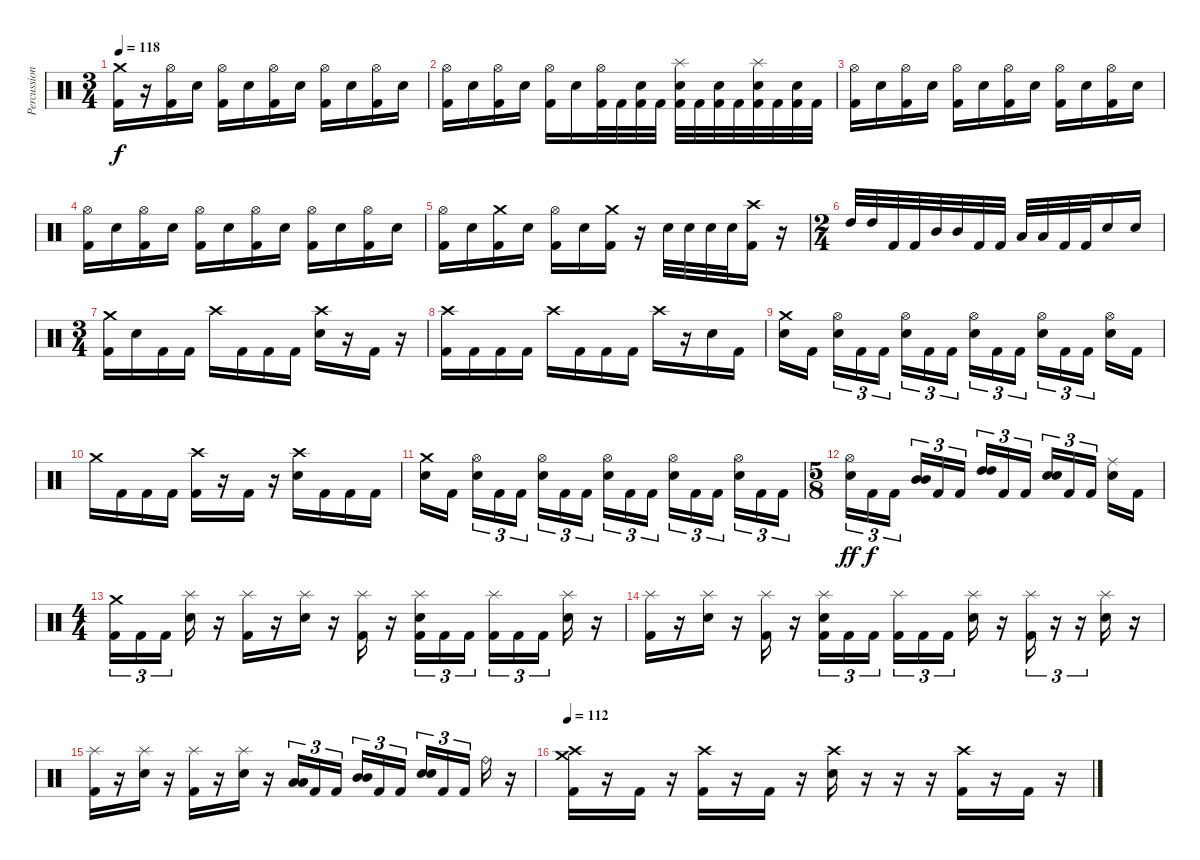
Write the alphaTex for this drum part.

\track ("Percussion" "Percussion") {instrument percussion}
\staff {score}
\articulation defaults
\ts (3 4)
\tempo 118
\clef neutral
\ks c
("Crash medium (hit)" "Kick (hit) 2").16{dy f} r.16 ("Hi-Hat (open)" "Kick (hit) 2").16 "Electric Snare (hit)".16 ("Hi-Hat (open)" "Kick (hit) 2").16 "Electric Snare (hit)".16 ("Hi-Hat (open)" "Kick (hit) 2").16 "Electric Snare (hit)".16 ("Hi-Hat (open)" "Kick (hit) 2").16 "Electric Snare (hit)".16 ("Hi-Hat (open)" "Kick (hit) 2").16 "Electric Snare (hit)".16 |
("Hi-Hat (open)" "Kick (hit) 2").16 "Electric Snare (hit)".16 ("Hi-Hat (open)" "Kick (hit) 2").16 "Electric Snare (hit)".16 ("Hi-Hat (open)" "Kick (hit) 2").16 "Electric Snare (hit)".16 ("Hi-Hat (open)" "Kick (hit) 2").32 "Kick (hit) 2".32 ("Electric Snare (hit)" "Kick (hit) 2").32 "Kick (hit) 2".32 ("Splash (hit)" "Electric Snare (hit)" "Kick (hit) 2").32 "Kick (hit) 2".32 ("Electric Snare (hit)" "Kick (hit) 2").32 "Kick (hit) 2".32 ("Splash (hit)" "Electric Snare (hit)" "Kick (hit) 2").32 "Kick (hit) 2".32 ("Electric Snare (hit)" "Kick (hit) 2").32 "Kick (hit) 2".32 |
("Hi-Hat (open)" "Kick (hit) 2").16 "Electric Snare (hit)".16 ("Hi-Hat (open)" "Kick (hit) 2").16 "Electric Snare (hit)".16 ("Hi-Hat (open)" "Kick (hit) 2").16 "Electric Snare (hit)".16 ("Hi-Hat (open)" "Kick (hit) 2").16 "Electric Snare (hit)".16 ("Hi-Hat (open)" "Kick (hit) 2").16 "Electric Snare (hit)".16 ("Hi-Hat (open)" "Kick (hit) 2").16 "Electric Snare (hit)".16 |
("Hi-Hat (open)" "Kick (hit) 2").16 "Electric Snare (hit)".16 ("Hi-Hat (open)" "Kick (hit) 2").16 "Electric Snare (hit)".16 ("Hi-Hat (open)" "Kick (hit) 2").16 "Electric Snare (hit)".16 ("Hi-Hat (open)" "Kick (hit) 2").16 "Electric Snare (hit)".16 ("Hi-Hat (open)" "Kick (hit) 2").16 "Electric Snare (hit)".16 ("Hi-Hat (open)" "Kick (hit) 2").16 "Electric Snare (hit)".16 |
("Hi-Hat (open)" "Kick (hit) 2").16 "Electric Snare (hit)".16 ("Crash medium (hit)" "Kick (hit) 2").16 "Electric Snare (hit)".16 ("Hi-Hat (open)" "Kick (hit) 2").16 "Electric Snare (hit)".16 ("Crash medium (hit)" "Kick (hit) 2").16 r.16 "Electric Snare (hit)".32 "Electric Snare (hit)".32 "Electric Snare (hit)".32 "Electric Snare (hit)".32 ("Crash high (hit)" "Kick (hit) 2").16 r.16 |
\ts (2 4)
"High Tom (hit)".32 "High Tom (hit)".32 "Kick (hit) 2".32 "Kick (hit) 2".32 "Mid Tom (hit)".32 "Mid Tom (hit)".32 "Kick (hit) 2".32 "Kick (hit) 2".32 "Low Tom (hit)".32 "Low Tom (hit)".32 "Kick (hit) 2".32 "Kick (hit) 2".32 "Electric Snare (hit)".16 "Electric Snare (hit)".16 |
\ts (3 4)
("Crash medium (hit)" "Kick (hit) 2").16 "Electric Snare (hit)".16 "Kick (hit) 2".16 "Kick (hit) 2".16 "Crash high (hit)".16 "Kick (hit) 2".16 "Kick (hit) 2".16 "Kick (hit) 2".16 ("Crash high (hit)" "Electric Snare (hit)").16 r.16 "Kick (hit) 2".16 r.16 |
("Crash high (hit)" "Kick (hit) 2").16 "Kick (hit) 2".16 "Kick (hit) 2".16 "Kick (hit) 2".16 "Crash high (hit)".16 "Kick (hit) 2".16 "Kick (hit) 2".16 "Kick (hit) 2".16 "Crash high (hit)".16 r.16 "Electric Snare (hit)".16 "Kick (hit) 2".16 |
("Crash medium (hit)" "Electric Snare (hit)").16 "Kick (hit) 2".16{beam splitsecondary} ("Hi-Hat (open)" "Electric Snare (hit)").16{tu (3 2)} "Kick (hit) 2".16{tu (3 2)} "Kick (hit) 2".16{tu (3 2)} ("Hi-Hat (open)" "Electric Snare (hit)").16{tu (3 2)} "Kick (hit) 2".16{tu (3 2)} "Kick (hit) 2".16{tu (3 2) beam splitsecondary} ("Hi-Hat (open)" "Electric Snare (hit)").16{tu (3 2)} "Kick (hit) 2".16{tu (3 2)} "Kick (hit) 2".16{tu (3 2)} ("Hi-Hat (open)" "Electric Snare (hit)").16{tu (3 2)} "Kick (hit) 2".16{tu (3 2)} "Kick (hit) 2".16{tu (3 2) beam splitsecondary} ("Hi-Hat (open)" "Electric Snare (hit)").16 "Kick (hit) 2".16 |
"Crash medium (hit)".16 "Kick (hit) 2".16 "Kick (hit) 2".16 "Kick (hit) 2".16 ("Crash high (hit)" "Kick (hit) 2").16 r.16 "Kick (hit) 2".16 r.16 ("Crash high (hit)" "Electric Snare (hit)").16 "Kick (hit) 2".16 "Kick (hit) 2".16 "Kick (hit) 2".16 |
("Crash medium (hit)" "Electric Snare (hit)").16 "Kick (hit) 2".16{beam splitsecondary} ("Hi-Hat (open)" "Electric Snare (hit)").16{tu (3 2)} "Kick (hit) 2".16{tu (3 2)} "Kick (hit) 2".16{tu (3 2)} ("Hi-Hat (open)" "Electric Snare (hit)").16{tu (3 2)} "Kick (hit) 2".16{tu (3 2)} "Kick (hit) 2".16{tu (3 2) beam splitsecondary} ("Hi-Hat (open)" "Electric Snare (hit)").16{tu (3 2)} "Kick (hit) 2".16{tu (3 2)} "Kick (hit) 2".16{tu (3 2)} ("Hi-Hat (open)" "Electric Snare (hit)").16{tu (3 2)} "Kick (hit) 2".16{tu (3 2)} "Kick (hit) 2".16{tu (3 2) beam splitsecondary} ("Hi-Hat (open)" "Electric Snare (hit)").16{tu (3 2)} "Kick (hit) 2".16{tu (3 2)} "Kick (hit) 2".16{tu (3 2)} |
\ts (5 8)
("Hi-Hat (open)" "Electric Snare (hit)").16{tu (3 2) dy ff} "Kick (hit) 2".16{tu (3 2) dy f} "Kick (hit) 2".16{tu (3 2)} ("Mid Tom (hit)" "Mid Tom (hit)").16{tu (3 2)} "Kick (hit) 2".16{tu (3 2)} "Kick (hit) 2".16{tu (3 2)} ("High Tom (hit)" "High Tom (hit)").16{tu (3 2)} "Kick (hit) 2".16{tu (3 2)} "Kick (hit) 2".16{tu (3 2)} ("Electric Snare (hit)" "Electric Snare (hit)").16{tu (3 2) bu 60} "Kick (hit) 2".16{tu (3 2)} "Kick (hit) 2".16{tu (3 2)} ("Ride (middle)" "Electric Snare (hit)").16 "Kick (hit) 2".16 |
\ts (4 4)
("Crash medium (hit)" "Kick (hit) 2").16{tu (3 2)} "Kick (hit) 2".16{tu (3 2)} "Kick (hit) 2".16{tu (3 2) beam splitsecondary} ("Splash (hit)" "Electric Snare (hit)").16 r.16 ("Splash (hit)" "Kick (hit) 2").16 r.16 ("Splash (hit)" "Electric Snare (hit)").16 r.16 ("Splash (hit)" "Kick (hit) 2").16 r.16 ("Splash (hit)" "Electric Snare (hit)" "Kick (hit) 2").16{tu (3 2)} "Kick (hit) 2".16{tu (3 2)} "Kick (hit) 2".16{tu (3 2)} ("Splash (hit)" "Kick (hit) 2").16{tu (3 2)} "Kick (hit) 2".16{tu (3 2)} "Kick (hit) 2".16{tu (3 2) beam splitsecondary} ("Splash (hit)" "Electric Snare (hit)").16 r.16 |
("Splash (hit)" "Kick (hit) 2").16 r.16 ("Splash (hit)" "Electric Snare (hit)").16 r.16 ("Splash (hit)" "Kick (hit) 2").16 r.16 ("Splash (hit)" "Electric Snare (hit)" "Kick (hit) 2").16{tu (3 2)} "Kick (hit) 2".16{tu (3 2)} "Kick (hit) 2".16{tu (3 2)} ("Splash (hit)" "Kick (hit) 2").16{tu (3 2)} "Kick (hit) 2".16{tu (3 2)} "Kick (hit) 2".16{tu (3 2) beam splitsecondary} ("Splash (hit)" "Electric Snare (hit)").16 r.16 ("Splash (hit)" "Kick (hit) 2").16{tu (3 2)} r.16{tu (3 2)} r.16{tu (3 2)} ("Splash (hit)" "Electric Snare (hit)").16 r.16 |
("Splash (hit)" "Kick (hit) 2").16 r.16 ("Splash (hit)" "Electric Snare (hit)").16 r.16 ("Splash (hit)" "Kick (hit) 2").16 r.16 ("Splash (hit)" "Electric Snare (hit)").16 r.16 ("Low Tom (hit)" "Low Tom (hit)").16{tu (3 2)} "Kick (hit) 2".16{tu (3 2)} "Kick (hit) 2".16{tu (3 2) beam splitsecondary} ("Mid Tom (hit)" "Mid Tom (hit)").16{tu (3 2)} "Kick (hit) 2".16{tu (3 2)} "Kick (hit) 2".16{tu (3 2)} ("Electric Snare (hit)" "Electric Snare (hit)").16{tu (3 2) bu 60} "Kick (hit) 2".16{tu (3 2)} "Kick (hit) 2".16{tu (3 2) beam splitsecondary} "Ride (bell)".16 r.16 |
\tempo 112
("Crash medium (hit)" "Crash high (hit)" "Kick (hit) 2").16 r.16 "Kick (hit) 2".16 r.16 ("Crash high (hit)" "Kick (hit) 2").16 r.16 "Kick (hit) 2".16 r.16 ("Crash high (hit)" "Electric Snare (hit)").16 r.16 r.16 r.16 ("Crash high (hit)" "Kick (hit) 2").16 r.16 "Kick (hit) 2".16 r.16
